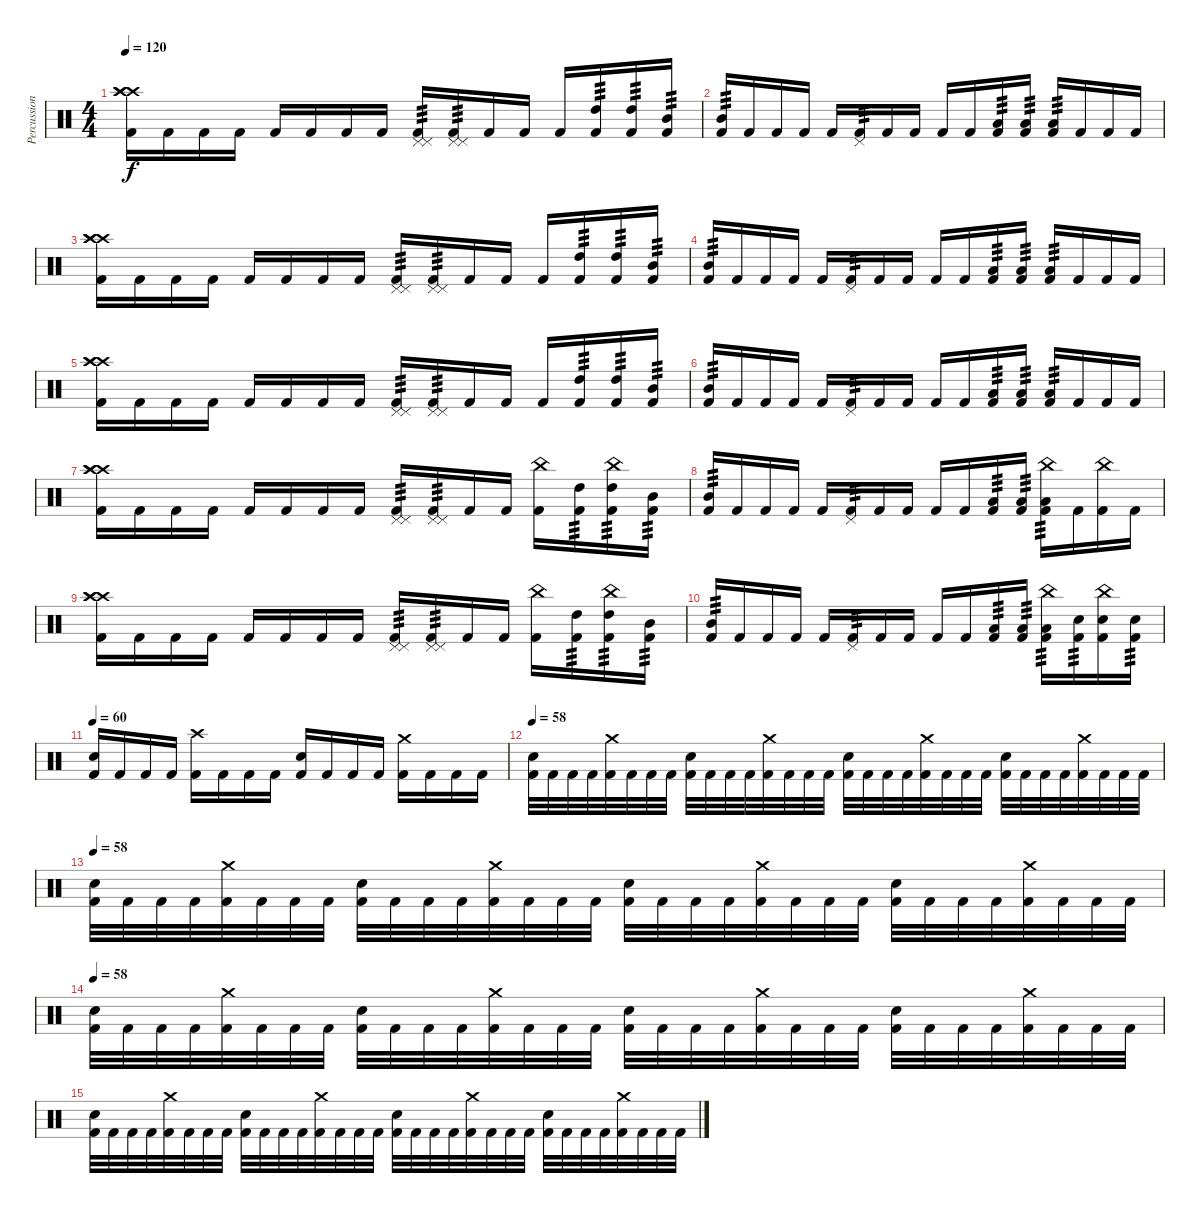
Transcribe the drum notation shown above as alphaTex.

\track ("Percussions" "Percussion") {instrument percussion}
\staff {score}
\articulation defaults
\ts (4 4)
\tempo 120
\clef neutral
\ks c
("Kick (hit) 2" "Crash high (hit)" "Crash high (hit)" "Crash high (hit)").16{dy f} "Kick (hit) 2".16 "Kick (hit) 2".16 "Kick (hit) 2".16 "Kick (hit) 2".16 "Kick (hit) 2".16 "Kick (hit) 2".16 "Kick (hit) 2".16 ("Kick (hit) 2" "Pedal Hi-Hat (hit)" "Pedal Hi-Hat (hit)").16{tp 3} ("Kick (hit) 2" "Pedal Hi-Hat (hit)" "Pedal Hi-Hat (hit)").16{tp 3} "Kick (hit) 2".16 "Kick (hit) 2".16 "Kick (hit) 2".16 ("Kick (hit) 2" "High Tom (hit)").16{tp 3} ("Kick (hit) 2" "High Tom (hit)").16{tp 3} ("Kick (hit) 2" "Mid Tom (hit)").16{tp 3} |
("Kick (hit) 2" "Mid Tom (hit)").16{tp 3} "Kick (hit) 2".16 "Kick (hit) 2".16 "Kick (hit) 2".16 "Kick (hit) 2".16 ("Kick (hit) 2" "Pedal Hi-Hat (hit)").16{tp 3} "Kick (hit) 2".16 "Kick (hit) 2".16 "Kick (hit) 2".16 "Kick (hit) 2".16 ("Kick (hit) 2" "Low Tom (hit)").16{tp 3} ("Kick (hit) 2" "Low Tom (hit)").16{tp 3} ("Kick (hit) 2" "Low Tom (hit)").16{tp 3} "Kick (hit) 2".16 "Kick (hit) 2".16 "Kick (hit) 2".16 |
("Kick (hit) 2" "Crash high (hit)" "Crash high (hit)" "Crash high (hit)").16 "Kick (hit) 2".16 "Kick (hit) 2".16 "Kick (hit) 2".16 "Kick (hit) 2".16 "Kick (hit) 2".16 "Kick (hit) 2".16 "Kick (hit) 2".16 ("Kick (hit) 2" "Pedal Hi-Hat (hit)" "Pedal Hi-Hat (hit)").16{tp 3} ("Kick (hit) 2" "Pedal Hi-Hat (hit)" "Pedal Hi-Hat (hit)").16{tp 3} "Kick (hit) 2".16 "Kick (hit) 2".16 "Kick (hit) 2".16 ("Kick (hit) 2" "High Tom (hit)").16{tp 3} ("Kick (hit) 2" "High Tom (hit)").16{tp 3} ("Kick (hit) 2" "Mid Tom (hit)").16{tp 3} |
("Kick (hit) 2" "Mid Tom (hit)").16{tp 3} "Kick (hit) 2".16 "Kick (hit) 2".16 "Kick (hit) 2".16 "Kick (hit) 2".16 ("Kick (hit) 2" "Pedal Hi-Hat (hit)").16{tp 3} "Kick (hit) 2".16 "Kick (hit) 2".16 "Kick (hit) 2".16 "Kick (hit) 2".16 ("Kick (hit) 2" "Low Tom (hit)").16{tp 3} ("Kick (hit) 2" "Low Tom (hit)").16{tp 3} ("Kick (hit) 2" "Low Tom (hit)").16{tp 3} "Kick (hit) 2".16 "Kick (hit) 2".16 "Kick (hit) 2".16 |
("Kick (hit) 2" "Crash high (hit)" "Crash high (hit)" "Crash high (hit)").16 "Kick (hit) 2".16 "Kick (hit) 2".16 "Kick (hit) 2".16 "Kick (hit) 2".16 "Kick (hit) 2".16 "Kick (hit) 2".16 "Kick (hit) 2".16 ("Kick (hit) 2" "Pedal Hi-Hat (hit)" "Pedal Hi-Hat (hit)").16{tp 3} ("Kick (hit) 2" "Pedal Hi-Hat (hit)" "Pedal Hi-Hat (hit)").16{tp 3} "Kick (hit) 2".16 "Kick (hit) 2".16 "Kick (hit) 2".16 ("Kick (hit) 2" "High Tom (hit)").16{tp 3} ("Kick (hit) 2" "High Tom (hit)").16{tp 3} ("Kick (hit) 2" "Mid Tom (hit)").16{tp 3} |
("Kick (hit) 2" "Mid Tom (hit)").16{tp 3} "Kick (hit) 2".16 "Kick (hit) 2".16 "Kick (hit) 2".16 "Kick (hit) 2".16 ("Kick (hit) 2" "Pedal Hi-Hat (hit)").16{tp 3} "Kick (hit) 2".16 "Kick (hit) 2".16 "Kick (hit) 2".16 "Kick (hit) 2".16 ("Kick (hit) 2" "Low Tom (hit)").16{tp 3} ("Kick (hit) 2" "Low Tom (hit)").16{tp 3} ("Kick (hit) 2" "Low Tom (hit)").16{tp 3} "Kick (hit) 2".16 "Kick (hit) 2".16 "Kick (hit) 2".16 |
("Kick (hit) 2" "Crash high (hit)" "Crash high (hit)" "Crash high (hit)").16 "Kick (hit) 2".16 "Kick (hit) 2".16 "Kick (hit) 2".16 "Kick (hit) 2".16 "Kick (hit) 2".16 "Kick (hit) 2".16 "Kick (hit) 2".16 ("Kick (hit) 2" "Pedal Hi-Hat (hit)" "Pedal Hi-Hat (hit)").16{tp 3} ("Kick (hit) 2" "Pedal Hi-Hat (hit)" "Pedal Hi-Hat (hit)").16{tp 3} "Kick (hit) 2".16 "Kick (hit) 2".16 ("Kick (hit) 2" "China (hit)").16 ("Kick (hit) 2" "High Tom (hit)").16{tp 3} ("Kick (hit) 2" "High Tom (hit)" "China (hit)").16{tp 3} ("Kick (hit) 2" "Mid Tom (hit)").16{tp 3} |
("Kick (hit) 2" "Mid Tom (hit)").16{tp 3} "Kick (hit) 2".16 "Kick (hit) 2".16 "Kick (hit) 2".16 "Kick (hit) 2".16 ("Kick (hit) 2" "Pedal Hi-Hat (hit)").16{tp 3} "Kick (hit) 2".16 "Kick (hit) 2".16 "Kick (hit) 2".16 "Kick (hit) 2".16 ("Kick (hit) 2" "Low Tom (hit)").16{tp 3} ("Kick (hit) 2" "Low Tom (hit)").16{tp 3} ("Kick (hit) 2" "Low Tom (hit)" "China (hit)").16{tp 3} "Kick (hit) 2".16 ("Kick (hit) 2" "China (hit)").16 "Kick (hit) 2".16 |
("Kick (hit) 2" "Crash high (hit)" "Crash high (hit)" "Crash high (hit)").16 "Kick (hit) 2".16 "Kick (hit) 2".16 "Kick (hit) 2".16 "Kick (hit) 2".16 "Kick (hit) 2".16 "Kick (hit) 2".16 "Kick (hit) 2".16 ("Kick (hit) 2" "Pedal Hi-Hat (hit)" "Pedal Hi-Hat (hit)").16{tp 3} ("Kick (hit) 2" "Pedal Hi-Hat (hit)" "Pedal Hi-Hat (hit)").16{tp 3} "Kick (hit) 2".16 "Kick (hit) 2".16 ("Kick (hit) 2" "China (hit)").16 ("Kick (hit) 2" "High Tom (hit)").16{tp 3} ("Kick (hit) 2" "High Tom (hit)" "China (hit)").16{tp 3} ("Kick (hit) 2" "Mid Tom (hit)").16{tp 3} |
("Kick (hit) 2" "Mid Tom (hit)").16{tp 3} "Kick (hit) 2".16 "Kick (hit) 2".16 "Kick (hit) 2".16 "Kick (hit) 2".16 ("Kick (hit) 2" "Pedal Hi-Hat (hit)").16{tp 3} "Kick (hit) 2".16 "Kick (hit) 2".16 "Kick (hit) 2".16 "Kick (hit) 2".16 ("Kick (hit) 2" "Low Tom (hit)").16{tp 3} ("Kick (hit) 2" "Low Tom (hit)").16{tp 3} ("Kick (hit) 2" "Low Tom (hit)" "China (hit)").16{tp 3} ("Kick (hit) 2" "Electric Snare (hit)").16{tp 3} ("Kick (hit) 2" "Electric Snare (hit)" "China (hit)").16 ("Kick (hit) 2" "Electric Snare (hit)").16{tp 3} |
\tempo 60
("Snare (hit) 2" "Kick (hit) 2").16 "Kick (hit) 2".16 "Kick (hit) 2".16 "Kick (hit) 2".16 ("Crash high (hit)" "Kick (hit) 2").16 "Kick (hit) 2".16 "Kick (hit) 2".16 "Kick (hit) 2".16 ("Snare (hit) 2" "Kick (hit) 2").16 "Kick (hit) 2".16 "Kick (hit) 2".16 "Kick (hit) 2".16 ("Crash medium (hit)" "Kick (hit) 2").16 "Kick (hit) 2".16 "Kick (hit) 2".16 "Kick (hit) 2".16 |
\tempo 58
("Snare (hit) 2" "Kick (hit) 2").32 "Kick (hit) 2".32 "Kick (hit) 2".32 "Kick (hit) 2".32 ("Crash medium (hit)" "Kick (hit) 2").32 "Kick (hit) 2".32 "Kick (hit) 2".32 "Kick (hit) 2".32 ("Snare (hit) 2" "Kick (hit) 2").32 "Kick (hit) 2".32 "Kick (hit) 2".32 "Kick (hit) 2".32 ("Crash medium (hit)" "Kick (hit) 2").32 "Kick (hit) 2".32 "Kick (hit) 2".32 "Kick (hit) 2".32 ("Snare (hit) 2" "Kick (hit) 2").32 "Kick (hit) 2".32 "Kick (hit) 2".32 "Kick (hit) 2".32 ("Crash medium (hit)" "Kick (hit) 2").32 "Kick (hit) 2".32 "Kick (hit) 2".32 "Kick (hit) 2".32 ("Snare (hit) 2" "Kick (hit) 2").32 "Kick (hit) 2".32 "Kick (hit) 2".32 "Kick (hit) 2".32 ("Crash medium (hit)" "Kick (hit) 2").32 "Kick (hit) 2".32 "Kick (hit) 2".32 "Kick (hit) 2".32 |
\tempo 58
("Snare (hit) 2" "Kick (hit) 2").32 "Kick (hit) 2".32 "Kick (hit) 2".32 "Kick (hit) 2".32 ("Crash medium (hit)" "Kick (hit) 2").32 "Kick (hit) 2".32 "Kick (hit) 2".32 "Kick (hit) 2".32 ("Snare (hit) 2" "Kick (hit) 2").32 "Kick (hit) 2".32 "Kick (hit) 2".32 "Kick (hit) 2".32 ("Crash medium (hit)" "Kick (hit) 2").32 "Kick (hit) 2".32 "Kick (hit) 2".32 "Kick (hit) 2".32 ("Snare (hit) 2" "Kick (hit) 2").32 "Kick (hit) 2".32 "Kick (hit) 2".32 "Kick (hit) 2".32 ("Crash medium (hit)" "Kick (hit) 2").32 "Kick (hit) 2".32 "Kick (hit) 2".32 "Kick (hit) 2".32 ("Snare (hit) 2" "Kick (hit) 2").32 "Kick (hit) 2".32 "Kick (hit) 2".32 "Kick (hit) 2".32 ("Crash medium (hit)" "Kick (hit) 2").32 "Kick (hit) 2".32 "Kick (hit) 2".32 "Kick (hit) 2".32 |
\tempo 58
("Snare (hit) 2" "Kick (hit) 2").32 "Kick (hit) 2".32 "Kick (hit) 2".32 "Kick (hit) 2".32 ("Crash medium (hit)" "Kick (hit) 2").32 "Kick (hit) 2".32 "Kick (hit) 2".32 "Kick (hit) 2".32 ("Snare (hit) 2" "Kick (hit) 2").32 "Kick (hit) 2".32 "Kick (hit) 2".32 "Kick (hit) 2".32 ("Crash medium (hit)" "Kick (hit) 2").32 "Kick (hit) 2".32 "Kick (hit) 2".32 "Kick (hit) 2".32 ("Snare (hit) 2" "Kick (hit) 2").32 "Kick (hit) 2".32 "Kick (hit) 2".32 "Kick (hit) 2".32 ("Crash medium (hit)" "Kick (hit) 2").32 "Kick (hit) 2".32 "Kick (hit) 2".32 "Kick (hit) 2".32 ("Snare (hit) 2" "Kick (hit) 2").32 "Kick (hit) 2".32 "Kick (hit) 2".32 "Kick (hit) 2".32 ("Crash medium (hit)" "Kick (hit) 2").32 "Kick (hit) 2".32 "Kick (hit) 2".32 "Kick (hit) 2".32 |
("Snare (hit) 2" "Kick (hit) 2").32 "Kick (hit) 2".32 "Kick (hit) 2".32 "Kick (hit) 2".32 ("Crash medium (hit)" "Kick (hit) 2").32 "Kick (hit) 2".32 "Kick (hit) 2".32 "Kick (hit) 2".32 ("Snare (hit) 2" "Kick (hit) 2").32 "Kick (hit) 2".32 "Kick (hit) 2".32 "Kick (hit) 2".32 ("Crash medium (hit)" "Kick (hit) 2").32 "Kick (hit) 2".32 "Kick (hit) 2".32 "Kick (hit) 2".32 ("Snare (hit) 2" "Kick (hit) 2").32 "Kick (hit) 2".32 "Kick (hit) 2".32 "Kick (hit) 2".32 ("Crash medium (hit)" "Kick (hit) 2").32 "Kick (hit) 2".32 "Kick (hit) 2".32 "Kick (hit) 2".32 ("Snare (hit) 2" "Kick (hit) 2").32 "Kick (hit) 2".32 "Kick (hit) 2".32 "Kick (hit) 2".32 ("Crash medium (hit)" "Kick (hit) 2").32 "Kick (hit) 2".32 "Kick (hit) 2".32 "Kick (hit) 2".32
